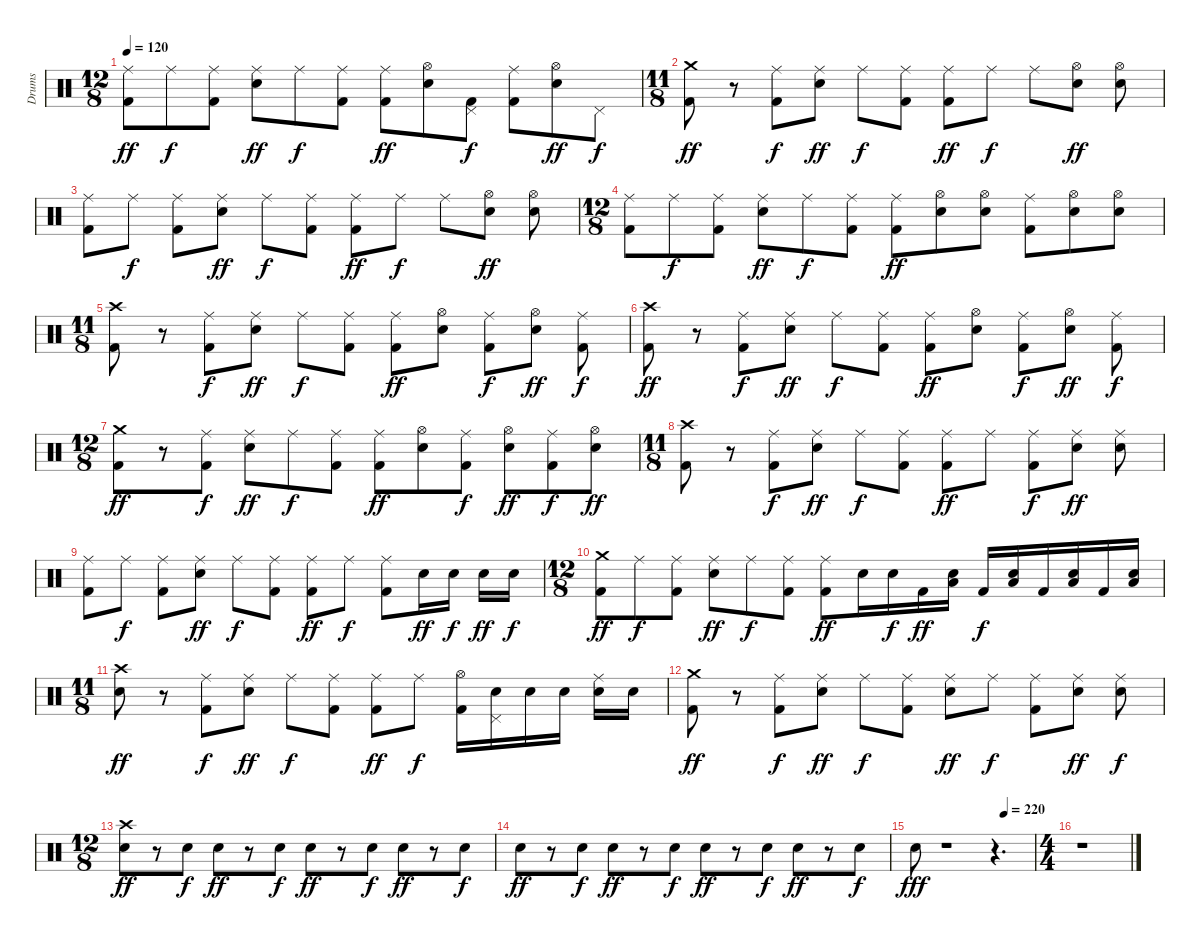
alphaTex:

\track ("Drums" "Drums") {instrument percussion}
\staff {score}
\articulation defaults
\ts (12 8)
\tempo 120
\clef neutral
\ks c
("Kick (hit) 2" "Ride (middle)").8{dy ff} "Ride (middle)".8{dy f} ("Kick (hit) 2" "Ride (middle)").8 ("Electric Snare (hit)" "Ride (middle)").8{dy ff} "Ride (middle)".8{dy f} ("Kick (hit) 2" "Ride (middle)").8 ("Kick (hit) 2" "Ride (middle)").8{dy ff} ("Electric Snare (hit)" "Hi-Hat (open)").8 ("Kick (hit) 2" "Pedal Hi-Hat (hit)").8{dy f} ("Kick (hit) 2" "Ride (middle)").8 ("Electric Snare (hit)" "Hi-Hat (open)").8{dy ff} "Pedal Hi-Hat (hit)".8{dy f} |
\ts (11 8)
("Kick (hit) 2" "Crash medium (hit)").8{dy ff} r.8 ("Kick (hit) 2" "Ride (middle)").8{dy f} ("Electric Snare (hit)" "Ride (middle)").8{dy ff} "Ride (middle)".8{dy f} ("Kick (hit) 2" "Ride (middle)").8 ("Kick (hit) 2" "Ride (middle)").8{dy ff} "Ride (middle)".8{dy f} "Ride (middle)".8 ("Electric Snare (hit)" "Hi-Hat (open)").8{dy ff} ("Electric Snare (hit)" "Hi-Hat (open)").8 |
("Kick (hit) 2" "Ride (middle)").8 "Ride (middle)".8{dy f} ("Kick (hit) 2" "Ride (middle)").8 ("Electric Snare (hit)" "Ride (middle)").8{dy ff} "Ride (middle)".8{dy f} ("Kick (hit) 2" "Ride (middle)").8 ("Kick (hit) 2" "Ride (middle)").8{dy ff} "Ride (middle)".8{dy f} "Ride (middle)".8 ("Electric Snare (hit)" "Hi-Hat (open)").8{dy ff} ("Electric Snare (hit)" "Hi-Hat (open)").8 |
\ts (12 8)
("Kick (hit) 2" "Ride (middle)").8 "Ride (middle)".8{dy f} ("Kick (hit) 2" "Ride (middle)").8 ("Electric Snare (hit)" "Ride (middle)").8{dy ff} "Ride (middle)".8{dy f} ("Kick (hit) 2" "Ride (middle)").8 ("Kick (hit) 2" "Ride (middle)").8{dy ff} ("Electric Snare (hit)" "Hi-Hat (open)").8 ("Electric Snare (hit)" "Hi-Hat (open)").8 ("Kick (hit) 2" "Ride (middle)").8 ("Electric Snare (hit)" "Hi-Hat (open)").8 ("Electric Snare (hit)" "Hi-Hat (open)").8 |
\ts (11 8)
("Kick (hit) 2" "Crash high (hit)").8 r.8 ("Kick (hit) 2" "Ride (middle)").8{dy f} ("Electric Snare (hit)" "Ride (middle)").8{dy ff} "Ride (middle)".8{dy f} ("Kick (hit) 2" "Ride (middle)").8 ("Kick (hit) 2" "Ride (middle)").8{dy ff} ("Electric Snare (hit)" "Hi-Hat (open)").8 ("Kick (hit) 2" "Ride (middle)").8{dy f} ("Electric Snare (hit)" "Hi-Hat (open)").8{dy ff} ("Kick (hit) 2" "Ride (middle)").8{dy f} |
("Kick (hit) 2" "Crash high (hit)").8{dy ff} r.8 ("Kick (hit) 2" "Ride (middle)").8{dy f} ("Electric Snare (hit)" "Ride (middle)").8{dy ff} "Ride (middle)".8{dy f} ("Kick (hit) 2" "Ride (middle)").8 ("Kick (hit) 2" "Ride (middle)").8{dy ff} ("Electric Snare (hit)" "Hi-Hat (open)").8 ("Kick (hit) 2" "Ride (middle)").8{dy f} ("Electric Snare (hit)" "Hi-Hat (open)").8{dy ff} ("Kick (hit) 2" "Ride (middle)").8{dy f} |
\ts (12 8)
("Kick (hit) 2" "Crash medium (hit)").8{dy ff} r.8 ("Kick (hit) 2" "Ride (middle)").8{dy f} ("Electric Snare (hit)" "Ride (middle)").8{dy ff} "Ride (middle)".8{dy f} ("Kick (hit) 2" "Ride (middle)").8 ("Kick (hit) 2" "Ride (middle)").8{dy ff} ("Electric Snare (hit)" "Hi-Hat (open)").8 ("Kick (hit) 2" "Ride (middle)").8{dy f} ("Electric Snare (hit)" "Hi-Hat (open)").8{dy ff} ("Kick (hit) 2" "Ride (middle)").8{dy f} ("Electric Snare (hit)" "Hi-Hat (open)").8{dy ff} |
\ts (11 8)
("Crash high (hit)" "Kick (hit) 2").8 r.8 ("Kick (hit) 2" "Ride (middle)").8{dy f} ("Electric Snare (hit)" "Ride (middle)").8{dy ff} "Ride (middle)".8{dy f} ("Kick (hit) 2" "Ride (middle)").8 ("Kick (hit) 2" "Ride (middle)").8{dy ff} "Ride (middle)".8 ("Kick (hit) 2" "Ride (middle)").8{dy f} ("Electric Snare (hit)" "Ride (middle)").8{dy ff} ("Electric Snare (hit)" "Ride (middle)").8 |
("Kick (hit) 2" "Ride (middle)").8 "Ride (middle)".8{dy f} ("Kick (hit) 2" "Ride (middle)").8 ("Electric Snare (hit)" "Ride (middle)").8{dy ff} "Ride (middle)".8{dy f} ("Kick (hit) 2" "Ride (middle)").8 ("Kick (hit) 2" "Ride (middle)").8{dy ff} "Ride (middle)".8{dy f} ("Kick (hit) 2" "Ride (middle)").8 "Electric Snare (hit)".16{dy ff} "Electric Snare (hit)".16{dy f} "Electric Snare (hit)".16{dy ff} "Electric Snare (hit)".16{dy f} |
\ts (12 8)
("Kick (hit) 2" "Crash medium (hit)").8{dy ff} "Ride (middle)".8{dy f} ("Kick (hit) 2" "Ride (middle)").8 ("Electric Snare (hit)" "Ride (middle)").8{dy ff} "Ride (middle)".8{dy f} ("Kick (hit) 2" "Ride (middle)").8 ("Kick (hit) 2" "Ride (middle)").8{dy ff} "Electric Snare (hit)".16 "Electric Snare (hit)".16{dy f} "Kick (hit) 2".16{dy ff} ("Electric Snare (hit)" "Low Tom (hit)").16 "Kick (hit) 2".16{dy f} ("Electric Snare (hit)" "Low Tom (hit)").16 "Kick (hit) 2".16 ("Electric Snare (hit)" "Low Tom (hit)").16 "Kick (hit) 2".16 ("Electric Snare (hit)" "Low Tom (hit)").16 |
\ts (11 8)
("Electric Snare (hit)" "Crash high (hit)").8{dy ff} r.8 ("Kick (hit) 2" "Ride (middle)").8{dy f} ("Electric Snare (hit)" "Ride (middle)").8{dy ff} "Ride (middle)".8{dy f} ("Kick (hit) 2" "Ride (middle)").8 ("Kick (hit) 2" "Ride (middle)").8{dy ff} "Ride (middle)".8{dy f} ("Kick (hit) 2" "Hi-Hat (open)").16 ("Electric Snare (hit)" "Pedal Hi-Hat (hit)").16 "Electric Snare (hit)".16 "Electric Snare (hit)".16 ("Electric Snare (hit)" "Ride (middle)").16 "Electric Snare (hit)".16 |
("Kick (hit) 2" "Crash medium (hit)").8{dy ff} r.8 ("Kick (hit) 2" "Ride (middle)").8{dy f} ("Electric Snare (hit)" "Ride (middle)").8{dy ff} "Ride (middle)".8{dy f} ("Kick (hit) 2" "Ride (middle)").8 ("Electric Snare (hit)" "Ride (middle)").8{dy ff} "Ride (middle)".8{dy f} ("Kick (hit) 2" "Ride (middle)").8 ("Electric Snare (hit)" "Ride (middle)").8{dy ff} ("Electric Snare (hit)" "Ride (middle)").8{dy f} |
\ts (12 8)
("Electric Snare (hit)" "Crash high (hit)").8{dy ff} r.8 "Electric Snare (hit)".8{dy f} "Electric Snare (hit)".8{dy ff} r.8 "Electric Snare (hit)".8{dy f} "Electric Snare (hit)".8{dy ff} r.8 "Electric Snare (hit)".8{dy f} "Electric Snare (hit)".8{dy ff} r.8 "Electric Snare (hit)".8{dy f} |
"Electric Snare (hit)".8{dy ff} r.8 "Electric Snare (hit)".8{dy f} "Electric Snare (hit)".8{dy ff} r.8 "Electric Snare (hit)".8{dy f} "Electric Snare (hit)".8{dy ff} r.8 "Electric Snare (hit)".8{dy f} "Electric Snare (hit)".8{dy ff} r.8 "Electric Snare (hit)".8{dy f} |
\tempo (220 0.75)
"Electric Snare (hit)".8{dy fff} r.1 r.4{d} |
\ts (4 4)
r.1
